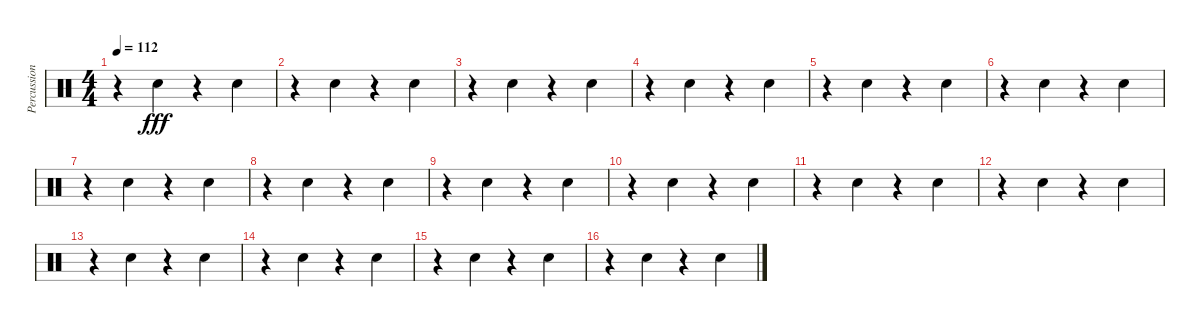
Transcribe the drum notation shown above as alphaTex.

\track ("Percussion" "Percussion") {instrument percussion}
\staff {score}
\articulation defaults
\ts (4 4)
\tempo 112
\clef neutral
\ks c
r.4{dy fff} "Snare (hit) 2".4 r.4 "Snare (hit) 2".4 |
r.4 "Snare (hit) 2".4 r.4 "Snare (hit) 2".4 |
r.4 "Snare (hit) 2".4 r.4 "Snare (hit) 2".4 |
r.4 "Snare (hit) 2".4 r.4 "Snare (hit) 2".4 |
r.4 "Snare (hit) 2".4 r.4 "Snare (hit) 2".4 |
r.4 "Snare (hit) 2".4 r.4 "Snare (hit) 2".4 |
r.4 "Snare (hit) 2".4 r.4 "Snare (hit) 2".4 |
r.4 "Snare (hit) 2".4 r.4 "Snare (hit) 2".4 |
r.4 "Snare (hit) 2".4 r.4 "Snare (hit) 2".4 |
r.4 "Snare (hit) 2".4 r.4 "Snare (hit) 2".4 |
r.4 "Snare (hit) 2".4 r.4 "Snare (hit) 2".4 |
r.4 "Snare (hit) 2".4 r.4 "Snare (hit) 2".4 |
r.4 "Snare (hit) 2".4 r.4 "Snare (hit) 2".4 |
r.4 "Snare (hit) 2".4 r.4 "Snare (hit) 2".4 |
r.4 "Snare (hit) 2".4 r.4 "Snare (hit) 2".4 |
r.4 "Snare (hit) 2".4 r.4 "Snare (hit) 2".4
